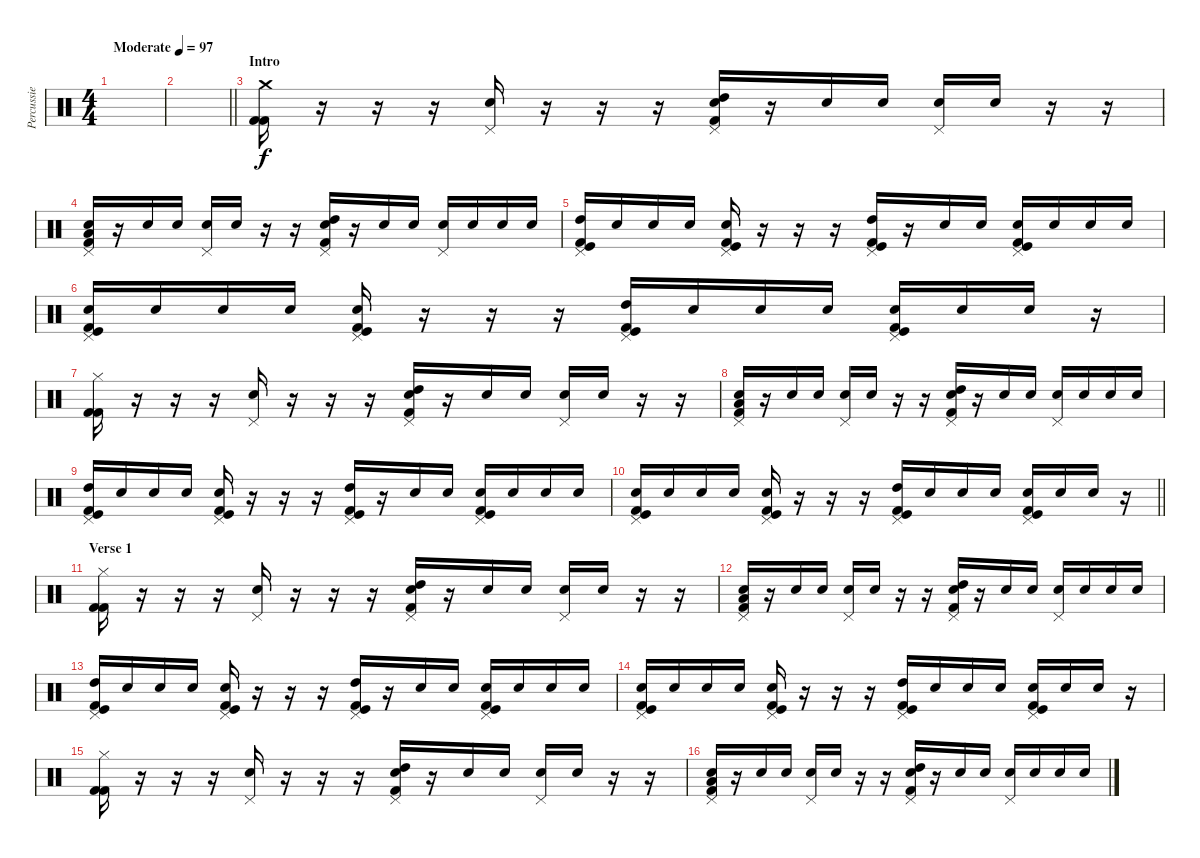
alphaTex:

\track ("Percussie" "Percussie") {instrument percussion}
\staff {score}
\articulation defaults
\ts (4 4)
\tempo (97 "Moderate")
\clef neutral
\ks c
|
\barLineRight lightlight
|
\section ("" "Intro")
("Crash medium (hit)" "Kick (hit) 2" "Kick (hit) 2").16 r.16 r.16 r.16 ("Pedal Hi-Hat (hit)" "Hand Clap (hit)").16 r.16 r.16 r.16 ("Pedal Hi-Hat (hit)" "Electric Snare (hit)" "High Tom (hit)" "Kick (hit) 2").16 r.16 "Hand Clap (hit)".16 "Hand Clap (hit)".16 ("Pedal Hi-Hat (hit)" "Hand Clap (hit)").16 "Hand Clap (hit)".16 r.16 r.16 |
("Pedal Hi-Hat (hit)" "Electric Snare (hit)" "Low Tom (hit)" "Kick (hit) 2").16 r.16 "Hand Clap (hit)".16 "Hand Clap (hit)".16 ("Pedal Hi-Hat (hit)" "Hand Clap (hit)").16 "Hand Clap (hit)".16 r.16 r.16 ("Pedal Hi-Hat (hit)" "Electric Snare (hit)" "High Tom (hit)" "Kick (hit) 2").16 r.16 "Hand Clap (hit)".16 "Hand Clap (hit)".16 ("Pedal Hi-Hat (hit)" "Hand Clap (hit)").16 "Hand Clap (hit)".16 "Hand Clap (hit)".16 "Hand Clap (hit)".16 |
("Pedal Hi-Hat (hit)" "High Tom (hit)" "Kick (hit)" "Kick (hit) 2").16 "Hand Clap (hit)".16 "Hand Clap (hit)".16 "Hand Clap (hit)".16 ("Pedal Hi-Hat (hit)" "Electric Snare (hit)" "Kick (hit)" "Kick (hit) 2").16 r.16 r.16 r.16 ("Pedal Hi-Hat (hit)" "High Tom (hit)" "Kick (hit)" "Kick (hit) 2").16 r.16 "Hand Clap (hit)".16 "Hand Clap (hit)".16 ("Pedal Hi-Hat (hit)" "Electric Snare (hit)" "Kick (hit)" "Kick (hit) 2").16 "Hand Clap (hit)".16 "Hand Clap (hit)".16 "Hand Clap (hit)".16 |
("Pedal Hi-Hat (hit)" "Electric Snare (hit)" "Kick (hit)" "Kick (hit) 2").16 "Hand Clap (hit)".16 "Hand Clap (hit)".16 "Hand Clap (hit)".16 ("Pedal Hi-Hat (hit)" "Electric Snare (hit)" "Kick (hit)" "Kick (hit) 2").16 r.16 r.16 r.16 ("Pedal Hi-Hat (hit)" "High Tom (hit)" "Kick (hit)" "Kick (hit) 2").16 "Hand Clap (hit)".16 "Hand Clap (hit)".16 "Hand Clap (hit)".16 ("Pedal Hi-Hat (hit)" "Electric Snare (hit)" "Kick (hit)" "Kick (hit) 2").16 "Hand Clap (hit)".16 "Electric Snare (hit)".16 r.16 |
("Hi-Hat (closed)" "Kick (hit) 2" "Kick (hit) 2").16 r.16 r.16 r.16 ("Pedal Hi-Hat (hit)" "Hand Clap (hit)").16 r.16 r.16 r.16 ("Pedal Hi-Hat (hit)" "Electric Snare (hit)" "High Tom (hit)" "Kick (hit) 2").16 r.16 "Hand Clap (hit)".16 "Hand Clap (hit)".16 ("Pedal Hi-Hat (hit)" "Hand Clap (hit)").16 "Hand Clap (hit)".16 r.16 r.16 |
("Pedal Hi-Hat (hit)" "Electric Snare (hit)" "Low Tom (hit)" "Kick (hit) 2").16 r.16 "Hand Clap (hit)".16 "Hand Clap (hit)".16 ("Pedal Hi-Hat (hit)" "Hand Clap (hit)").16 "Hand Clap (hit)".16 r.16 r.16 ("Pedal Hi-Hat (hit)" "Electric Snare (hit)" "High Tom (hit)" "Kick (hit) 2").16 r.16 "Hand Clap (hit)".16 "Hand Clap (hit)".16 ("Pedal Hi-Hat (hit)" "Hand Clap (hit)").16 "Hand Clap (hit)".16 "Hand Clap (hit)".16 "Hand Clap (hit)".16 |
("Pedal Hi-Hat (hit)" "High Tom (hit)" "Kick (hit)" "Kick (hit) 2").16 "Hand Clap (hit)".16 "Hand Clap (hit)".16 "Hand Clap (hit)".16 ("Pedal Hi-Hat (hit)" "Electric Snare (hit)" "Kick (hit)" "Kick (hit) 2").16 r.16 r.16 r.16 ("Pedal Hi-Hat (hit)" "High Tom (hit)" "Kick (hit)" "Kick (hit) 2").16 r.16 "Hand Clap (hit)".16 "Hand Clap (hit)".16 ("Pedal Hi-Hat (hit)" "Electric Snare (hit)" "Kick (hit)" "Kick (hit) 2").16 "Hand Clap (hit)".16 "Hand Clap (hit)".16 "Hand Clap (hit)".16 |
\barLineRight lightlight
("Pedal Hi-Hat (hit)" "Electric Snare (hit)" "Kick (hit)" "Kick (hit) 2").16 "Hand Clap (hit)".16 "Hand Clap (hit)".16 "Hand Clap (hit)".16 ("Pedal Hi-Hat (hit)" "Electric Snare (hit)" "Kick (hit)" "Kick (hit) 2").16 r.16 r.16 r.16 ("Pedal Hi-Hat (hit)" "High Tom (hit)" "Kick (hit)" "Kick (hit) 2").16 "Hand Clap (hit)".16 "Hand Clap (hit)".16 "Hand Clap (hit)".16 ("Pedal Hi-Hat (hit)" "Electric Snare (hit)" "Kick (hit)" "Kick (hit) 2").16 "Hand Clap (hit)".16 "Electric Snare (hit)".16 r.16 |
\section ("" "Verse 1")
("Hi-Hat (closed)" "Kick (hit) 2" "Kick (hit) 2").16 r.16 r.16 r.16 ("Pedal Hi-Hat (hit)" "Hand Clap (hit)").16 r.16 r.16 r.16 ("Pedal Hi-Hat (hit)" "Electric Snare (hit)" "High Tom (hit)" "Kick (hit) 2").16 r.16 "Hand Clap (hit)".16 "Hand Clap (hit)".16 ("Pedal Hi-Hat (hit)" "Hand Clap (hit)").16 "Hand Clap (hit)".16 r.16 r.16 |
("Pedal Hi-Hat (hit)" "Electric Snare (hit)" "Low Tom (hit)" "Kick (hit) 2").16 r.16 "Hand Clap (hit)".16 "Hand Clap (hit)".16 ("Pedal Hi-Hat (hit)" "Hand Clap (hit)").16 "Hand Clap (hit)".16 r.16 r.16 ("Pedal Hi-Hat (hit)" "Electric Snare (hit)" "High Tom (hit)" "Kick (hit) 2").16 r.16 "Hand Clap (hit)".16 "Hand Clap (hit)".16 ("Pedal Hi-Hat (hit)" "Hand Clap (hit)").16 "Hand Clap (hit)".16 "Hand Clap (hit)".16 "Hand Clap (hit)".16 |
("Pedal Hi-Hat (hit)" "High Tom (hit)" "Kick (hit)" "Kick (hit) 2").16 "Hand Clap (hit)".16 "Hand Clap (hit)".16 "Hand Clap (hit)".16 ("Pedal Hi-Hat (hit)" "Electric Snare (hit)" "Kick (hit)" "Kick (hit) 2").16 r.16 r.16 r.16 ("Pedal Hi-Hat (hit)" "High Tom (hit)" "Kick (hit)" "Kick (hit) 2").16 r.16 "Hand Clap (hit)".16 "Hand Clap (hit)".16 ("Pedal Hi-Hat (hit)" "Electric Snare (hit)" "Kick (hit)" "Kick (hit) 2").16 "Hand Clap (hit)".16 "Hand Clap (hit)".16 "Hand Clap (hit)".16 |
("Pedal Hi-Hat (hit)" "Electric Snare (hit)" "Kick (hit)" "Kick (hit) 2").16 "Hand Clap (hit)".16 "Hand Clap (hit)".16 "Hand Clap (hit)".16 ("Pedal Hi-Hat (hit)" "Electric Snare (hit)" "Kick (hit)" "Kick (hit) 2").16 r.16 r.16 r.16 ("Pedal Hi-Hat (hit)" "High Tom (hit)" "Kick (hit)" "Kick (hit) 2").16 "Hand Clap (hit)".16 "Hand Clap (hit)".16 "Hand Clap (hit)".16 ("Pedal Hi-Hat (hit)" "Electric Snare (hit)" "Kick (hit)" "Kick (hit) 2").16 "Hand Clap (hit)".16 "Electric Snare (hit)".16 r.16 |
("Hi-Hat (closed)" "Kick (hit) 2" "Kick (hit) 2").16 r.16 r.16 r.16 ("Pedal Hi-Hat (hit)" "Hand Clap (hit)").16 r.16 r.16 r.16 ("Pedal Hi-Hat (hit)" "Electric Snare (hit)" "High Tom (hit)" "Kick (hit) 2").16 r.16 "Hand Clap (hit)".16 "Hand Clap (hit)".16 ("Pedal Hi-Hat (hit)" "Hand Clap (hit)").16 "Hand Clap (hit)".16 r.16 r.16 |
("Pedal Hi-Hat (hit)" "Electric Snare (hit)" "Low Tom (hit)" "Kick (hit) 2").16 r.16 "Hand Clap (hit)".16 "Hand Clap (hit)".16 ("Pedal Hi-Hat (hit)" "Hand Clap (hit)").16 "Hand Clap (hit)".16 r.16 r.16 ("Pedal Hi-Hat (hit)" "Electric Snare (hit)" "High Tom (hit)" "Kick (hit) 2").16 r.16 "Hand Clap (hit)".16 "Hand Clap (hit)".16 ("Pedal Hi-Hat (hit)" "Hand Clap (hit)").16 "Hand Clap (hit)".16 "Hand Clap (hit)".16 "Hand Clap (hit)".16
